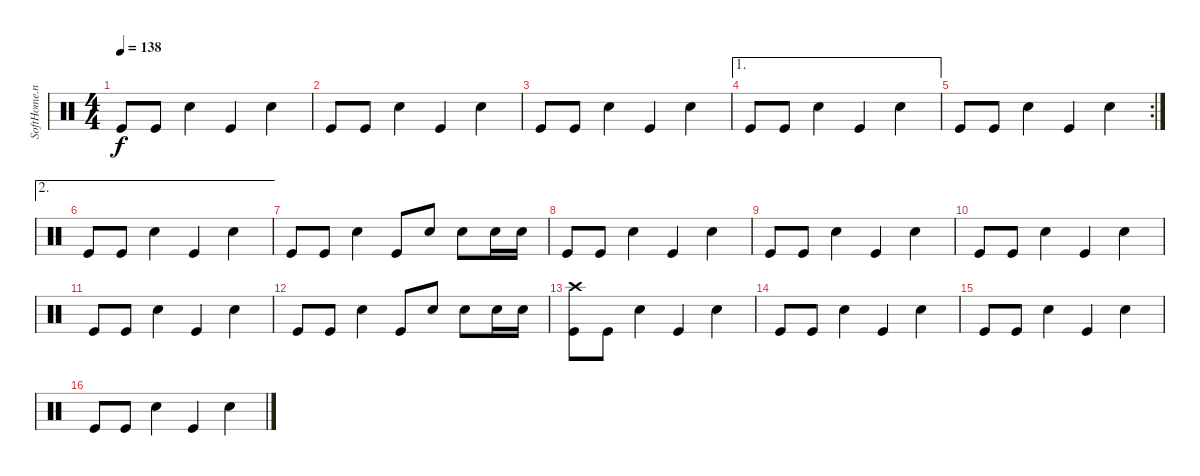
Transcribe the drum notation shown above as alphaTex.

\track ("SoftHome.net" "SoftHome.n") {instrument percussion}
\staff {score}
\articulation defaults
\ts (4 4)
\tempo 138
\clef neutral
\ks c "Kick (hit)".8{dy f} "Kick (hit)".8 "Snare (hit) 2".4 "Kick (hit)".4 "Snare (hit) 2".4
|
"Kick (hit)".8 "Kick (hit)".8 "Snare (hit) 2".4 "Kick (hit)".4 "Snare (hit) 2".4 |
"Kick (hit)".8 "Kick (hit)".8 "Snare (hit) 2".4 "Kick (hit)".4 "Snare (hit) 2".4 |
\ae 1 "Kick (hit)".8 "Kick (hit)".8 "Snare (hit) 2".4 "Kick (hit)".4 "Snare (hit) 2".4
|
\rc 2 "Kick (hit)".8 "Kick (hit)".8 "Snare (hit) 2".4 "Kick (hit)".4 "Snare (hit) 2".4
|
\ae 2 "Kick (hit)".8 "Kick (hit)".8 "Snare (hit) 2".4 "Kick (hit)".4 "Snare (hit) 2".4
|
"Kick (hit)".8 "Kick (hit)".8 "Snare (hit) 2".4 "Kick (hit)".8 "Snare (hit) 2".8 "Snare (hit) 2".8 "Snare (hit) 2".16 "Snare (hit) 2".16 |
"Kick (hit)".8 "Kick (hit)".8 "Snare (hit) 2".4 "Kick (hit)".4 "Snare (hit) 2".4 |
"Kick (hit)".8 "Kick (hit)".8 "Snare (hit) 2".4 "Kick (hit)".4 "Snare (hit) 2".4 |
"Kick (hit)".8 "Kick (hit)".8 "Snare (hit) 2".4 "Kick (hit)".4 "Snare (hit) 2".4 |
"Kick (hit)".8 "Kick (hit)".8 "Snare (hit) 2".4 "Kick (hit)".4 "Snare (hit) 2".4 |
"Kick (hit)".8 "Kick (hit)".8 "Snare (hit) 2".4 "Kick (hit)".8 "Snare (hit) 2".8 "Snare (hit) 2".8 "Snare (hit) 2".16 "Snare (hit) 2".16 |
("Crash high (hit)" "Kick (hit)").8 "Kick (hit)".8 "Snare (hit) 2".4 "Kick (hit)".4 "Snare (hit) 2".4 |
"Kick (hit)".8 "Kick (hit)".8 "Snare (hit) 2".4 "Kick (hit)".4 "Snare (hit) 2".4 |
"Kick (hit)".8 "Kick (hit)".8 "Snare (hit) 2".4 "Kick (hit)".4 "Snare (hit) 2".4 |
"Kick (hit)".8 "Kick (hit)".8 "Snare (hit) 2".4 "Kick (hit)".4 "Snare (hit) 2".4
